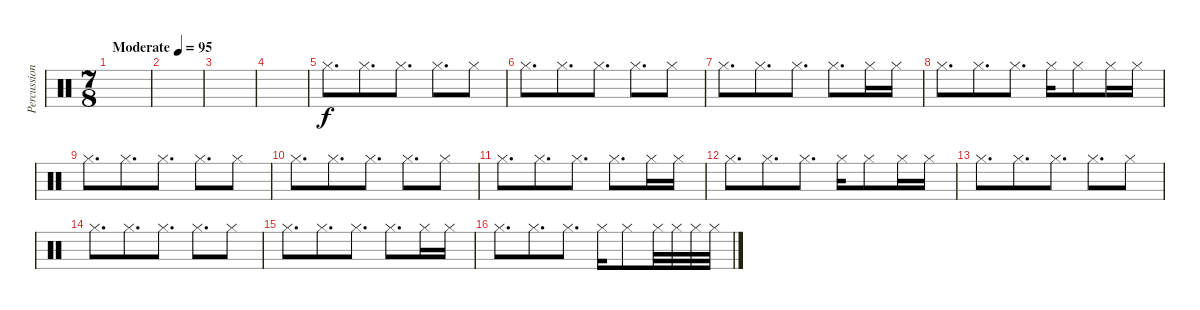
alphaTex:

\track ("Percussion" "Percussion") {instrument percussion}
\staff {score}
\articulation defaults
\ts (7 8)
\tempo (95 "Moderate")
\clef neutral
\ks c
|
|
|
|
"Hi-Hat (closed)".8{d} "Hi-Hat (closed)".8{d} "Hi-Hat (closed)".8{d} "Hi-Hat (closed)".8{d} "Hi-Hat (closed)".8 |
"Hi-Hat (closed)".8{d} "Hi-Hat (closed)".8{d} "Hi-Hat (closed)".8{d} "Hi-Hat (closed)".8{d} "Hi-Hat (closed)".8 |
"Hi-Hat (closed)".8{d} "Hi-Hat (closed)".8{d} "Hi-Hat (closed)".8{d} "Hi-Hat (closed)".8{d} "Hi-Hat (closed)".16 "Hi-Hat (closed)".16 |
"Hi-Hat (closed)".8{d} "Hi-Hat (closed)".8{d} "Hi-Hat (closed)".8{d} "Hi-Hat (closed)".16 "Hi-Hat (closed)".8 "Hi-Hat (closed)".16 "Hi-Hat (closed)".16 |
"Hi-Hat (closed)".8{d} "Hi-Hat (closed)".8{d} "Hi-Hat (closed)".8{d} "Hi-Hat (closed)".8{d} "Hi-Hat (closed)".8 |
"Hi-Hat (closed)".8{d} "Hi-Hat (closed)".8{d} "Hi-Hat (closed)".8{d} "Hi-Hat (closed)".8{d} "Hi-Hat (closed)".8 |
"Hi-Hat (closed)".8{d} "Hi-Hat (closed)".8{d} "Hi-Hat (closed)".8{d} "Hi-Hat (closed)".8{d} "Hi-Hat (closed)".16 "Hi-Hat (closed)".16 |
"Hi-Hat (closed)".8{d} "Hi-Hat (closed)".8{d} "Hi-Hat (closed)".8{d} "Hi-Hat (closed)".16 "Hi-Hat (closed)".8 "Hi-Hat (closed)".16 "Hi-Hat (closed)".16 |
"Hi-Hat (closed)".8{d} "Hi-Hat (closed)".8{d} "Hi-Hat (closed)".8{d} "Hi-Hat (closed)".8{d} "Hi-Hat (closed)".8 |
"Hi-Hat (closed)".8{d} "Hi-Hat (closed)".8{d} "Hi-Hat (closed)".8{d} "Hi-Hat (closed)".8{d} "Hi-Hat (closed)".8 |
"Hi-Hat (closed)".8{d} "Hi-Hat (closed)".8{d} "Hi-Hat (closed)".8{d} "Hi-Hat (closed)".8{d} "Hi-Hat (closed)".16 "Hi-Hat (closed)".16 |
"Hi-Hat (closed)".8{d} "Hi-Hat (closed)".8{d} "Hi-Hat (closed)".8{d} "Hi-Hat (closed)".16 "Hi-Hat (closed)".8 "Hi-Hat (closed)".32 "Hi-Hat (closed)".32 "Hi-Hat (closed)".32 "Hi-Hat (closed)".32
